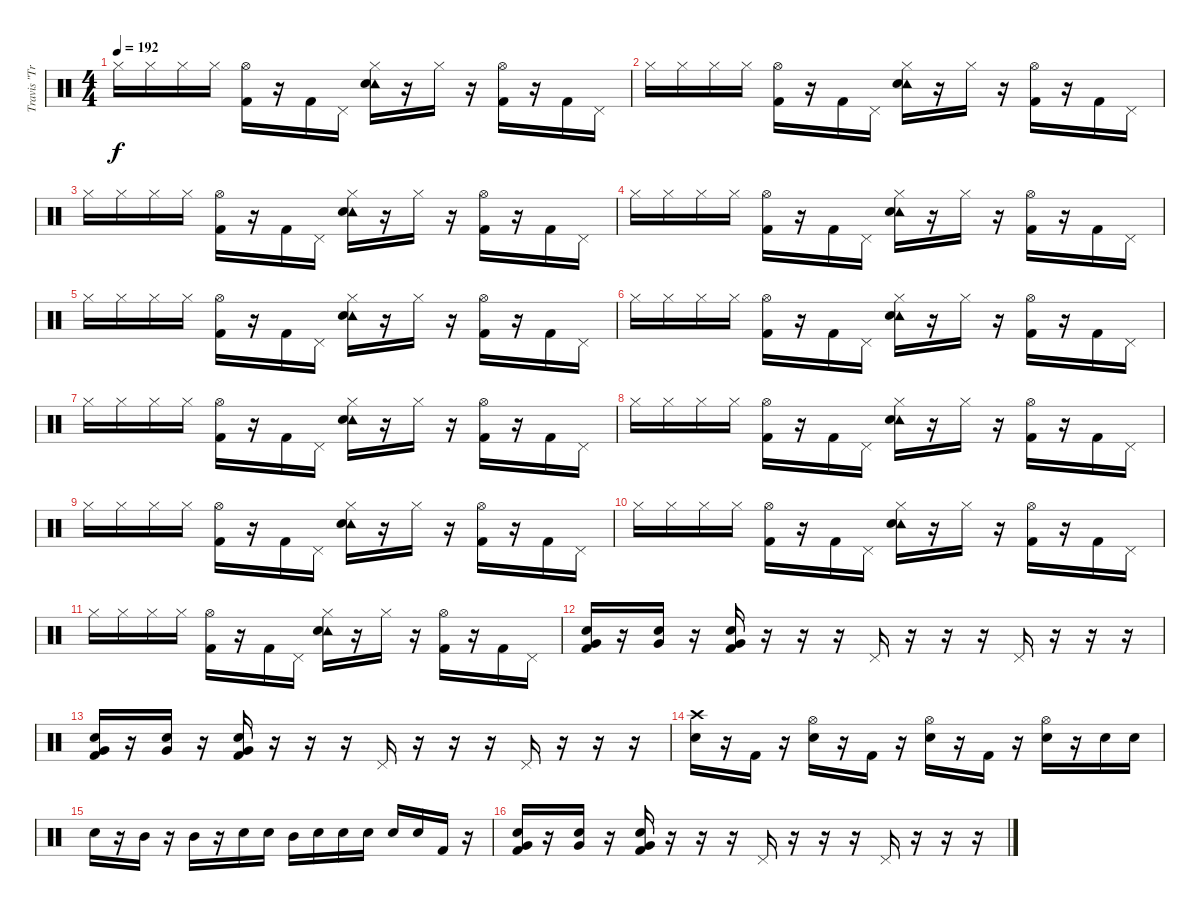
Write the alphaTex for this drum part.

\track ("Travis \"Trevor\" Barker" "Travis \"Tr") {instrument percussion}
\staff {score}
\articulation defaults
\ts (4 4)
\tempo 192
\clef neutral
\ks c "Hi-Hat (closed)".16{dy f} "Hi-Hat (closed)".16 "Hi-Hat (closed)".16 "Hi-Hat (closed)".16
("Hi-Hat (open)" "Kick (hit) 2").16 r.16 "Kick (hit) 2".16 "Pedal Hi-Hat (hit)".16 ("Tambourine (hit)" "Hi-Hat (closed)" "Snare (hit) 2").16 r.16 "Hi-Hat (closed)".16 r.16 ("Hi-Hat (open)" "Kick (hit) 2").16 r.16 "Kick (hit) 2".16 "Pedal Hi-Hat (hit)".16 |
"Hi-Hat (closed)".16 "Hi-Hat (closed)".16 "Hi-Hat (closed)".16 "Hi-Hat (closed)".16 ("Hi-Hat (open)" "Kick (hit) 2").16 r.16 "Kick (hit) 2".16 "Pedal Hi-Hat (hit)".16 ("Tambourine (hit)" "Hi-Hat (closed)" "Snare (hit) 2").16 r.16 "Hi-Hat (closed)".16 r.16 ("Hi-Hat (open)" "Kick (hit) 2").16 r.16 "Kick (hit) 2".16 "Pedal Hi-Hat (hit)".16 |
"Hi-Hat (closed)".16 "Hi-Hat (closed)".16 "Hi-Hat (closed)".16 "Hi-Hat (closed)".16 ("Hi-Hat (open)" "Kick (hit) 2").16 r.16 "Kick (hit) 2".16 "Pedal Hi-Hat (hit)".16 ("Tambourine (hit)" "Hi-Hat (closed)" "Snare (hit) 2").16 r.16 "Hi-Hat (closed)".16 r.16 ("Hi-Hat (open)" "Kick (hit) 2").16 r.16 "Kick (hit) 2".16 "Pedal Hi-Hat (hit)".16 |
"Hi-Hat (closed)".16 "Hi-Hat (closed)".16 "Hi-Hat (closed)".16 "Hi-Hat (closed)".16 ("Hi-Hat (open)" "Kick (hit) 2").16 r.16 "Kick (hit) 2".16 "Pedal Hi-Hat (hit)".16 ("Tambourine (hit)" "Hi-Hat (closed)" "Snare (hit) 2").16 r.16 "Hi-Hat (closed)".16 r.16 ("Hi-Hat (open)" "Kick (hit) 2").16 r.16 "Kick (hit) 2".16 "Pedal Hi-Hat (hit)".16 |
"Hi-Hat (closed)".16 "Hi-Hat (closed)".16 "Hi-Hat (closed)".16 "Hi-Hat (closed)".16 ("Hi-Hat (open)" "Kick (hit) 2").16 r.16 "Kick (hit) 2".16 "Pedal Hi-Hat (hit)".16 ("Tambourine (hit)" "Hi-Hat (closed)" "Snare (hit) 2").16 r.16 "Hi-Hat (closed)".16 r.16 ("Hi-Hat (open)" "Kick (hit) 2").16 r.16 "Kick (hit) 2".16 "Pedal Hi-Hat (hit)".16 |
"Hi-Hat (closed)".16 "Hi-Hat (closed)".16 "Hi-Hat (closed)".16 "Hi-Hat (closed)".16 ("Hi-Hat (open)" "Kick (hit) 2").16 r.16 "Kick (hit) 2".16 "Pedal Hi-Hat (hit)".16 ("Tambourine (hit)" "Hi-Hat (closed)" "Snare (hit) 2").16 r.16 "Hi-Hat (closed)".16 r.16 ("Hi-Hat (open)" "Kick (hit) 2").16 r.16 "Kick (hit) 2".16 "Pedal Hi-Hat (hit)".16 |
"Hi-Hat (closed)".16 "Hi-Hat (closed)".16 "Hi-Hat (closed)".16 "Hi-Hat (closed)".16 ("Hi-Hat (open)" "Kick (hit) 2").16 r.16 "Kick (hit) 2".16 "Pedal Hi-Hat (hit)".16 ("Tambourine (hit)" "Hi-Hat (closed)" "Snare (hit) 2").16 r.16 "Hi-Hat (closed)".16 r.16 ("Hi-Hat (open)" "Kick (hit) 2").16 r.16 "Kick (hit) 2".16 "Pedal Hi-Hat (hit)".16 |
"Hi-Hat (closed)".16 "Hi-Hat (closed)".16 "Hi-Hat (closed)".16 "Hi-Hat (closed)".16 ("Hi-Hat (open)" "Kick (hit) 2").16 r.16 "Kick (hit) 2".16 "Pedal Hi-Hat (hit)".16 ("Tambourine (hit)" "Hi-Hat (closed)" "Snare (hit) 2").16 r.16 "Hi-Hat (closed)".16 r.16 ("Hi-Hat (open)" "Kick (hit) 2").16 r.16 "Kick (hit) 2".16 "Pedal Hi-Hat (hit)".16 |
"Hi-Hat (closed)".16 "Hi-Hat (closed)".16 "Hi-Hat (closed)".16 "Hi-Hat (closed)".16 ("Hi-Hat (open)" "Kick (hit) 2").16 r.16 "Kick (hit) 2".16 "Pedal Hi-Hat (hit)".16 ("Tambourine (hit)" "Hi-Hat (closed)" "Snare (hit) 2").16 r.16 "Hi-Hat (closed)".16 r.16 ("Hi-Hat (open)" "Kick (hit) 2").16 r.16 "Kick (hit) 2".16 "Pedal Hi-Hat (hit)".16 |
"Hi-Hat (closed)".16 "Hi-Hat (closed)".16 "Hi-Hat (closed)".16 "Hi-Hat (closed)".16 ("Hi-Hat (open)" "Kick (hit) 2").16 r.16 "Kick (hit) 2".16 "Pedal Hi-Hat (hit)".16 ("Tambourine (hit)" "Hi-Hat (closed)" "Snare (hit) 2").16 r.16 "Hi-Hat (closed)".16 r.16 ("Hi-Hat (open)" "Kick (hit) 2").16 r.16 "Kick (hit) 2".16 "Pedal Hi-Hat (hit)".16 |
"Hi-Hat (closed)".16 "Hi-Hat (closed)".16 "Hi-Hat (closed)".16 "Hi-Hat (closed)".16 ("Hi-Hat (open)" "Kick (hit) 2").16 r.16 "Kick (hit) 2".16 "Pedal Hi-Hat (hit)".16 ("Tambourine (hit)" "Hi-Hat (closed)" "Snare (hit) 2").16 r.16 "Hi-Hat (closed)".16 r.16 ("Hi-Hat (open)" "Kick (hit) 2").16 r.16 "Kick (hit) 2".16 "Pedal Hi-Hat (hit)".16 |
("Snare (hit) 2" "Very Low Tom (hit)" "Kick (hit) 2").16 r.16 ("Snare (hit) 2" "Very Low Tom (hit)").16 r.16 ("Snare (hit) 2" "Very Low Tom (hit)" "Kick (hit) 2").16 r.16 r.16 r.16 "Pedal Hi-Hat (hit)".16 r.16 r.16 r.16 "Pedal Hi-Hat (hit)".16 r.16 r.16 r.16 |
("Snare (hit) 2" "Very Low Tom (hit)" "Kick (hit) 2").16 r.16 ("Snare (hit) 2" "Very Low Tom (hit)").16 r.16 ("Snare (hit) 2" "Very Low Tom (hit)" "Kick (hit) 2").16 r.16 r.16 r.16 "Pedal Hi-Hat (hit)".16 r.16 r.16 r.16 "Pedal Hi-Hat (hit)".16 r.16 r.16 r.16 |
("Crash high (hit)" "Snare (hit) 2").16 r.16 "Kick (hit) 2".16 r.16 ("Hi-Hat (open)" "Snare (hit) 2").16 r.16 "Kick (hit) 2".16 r.16 ("Hi-Hat (open)" "Snare (hit) 2").16 r.16 "Kick (hit) 2".16 r.16 ("Hi-Hat (open)" "Snare (hit) 2").16 r.16 "Snare (hit) 2".16 "Snare (hit) 2".16 |
"Snare (hit) 2".16 r.16 "Mid Tom (hit)".16 r.16 "Mid Tom (hit)".16 r.16 "Snare (hit) 2".16 "Snare (hit) 2".16 "Mid Tom (hit)".16 "Snare (hit) 2".16 "Snare (hit) 2".16 "Snare (hit) 2".16 "Snare (hit) 2".16 "Snare (hit) 2".16 "Kick (hit) 2".16 r.16 |
("Snare (hit) 2" "Very Low Tom (hit)" "Kick (hit) 2").16 r.16 ("Snare (hit) 2" "Very Low Tom (hit)").16 r.16 ("Snare (hit) 2" "Very Low Tom (hit)" "Kick (hit) 2").16 r.16 r.16 r.16 "Pedal Hi-Hat (hit)".16 r.16 r.16 r.16 "Pedal Hi-Hat (hit)".16 r.16 r.16 r.16
